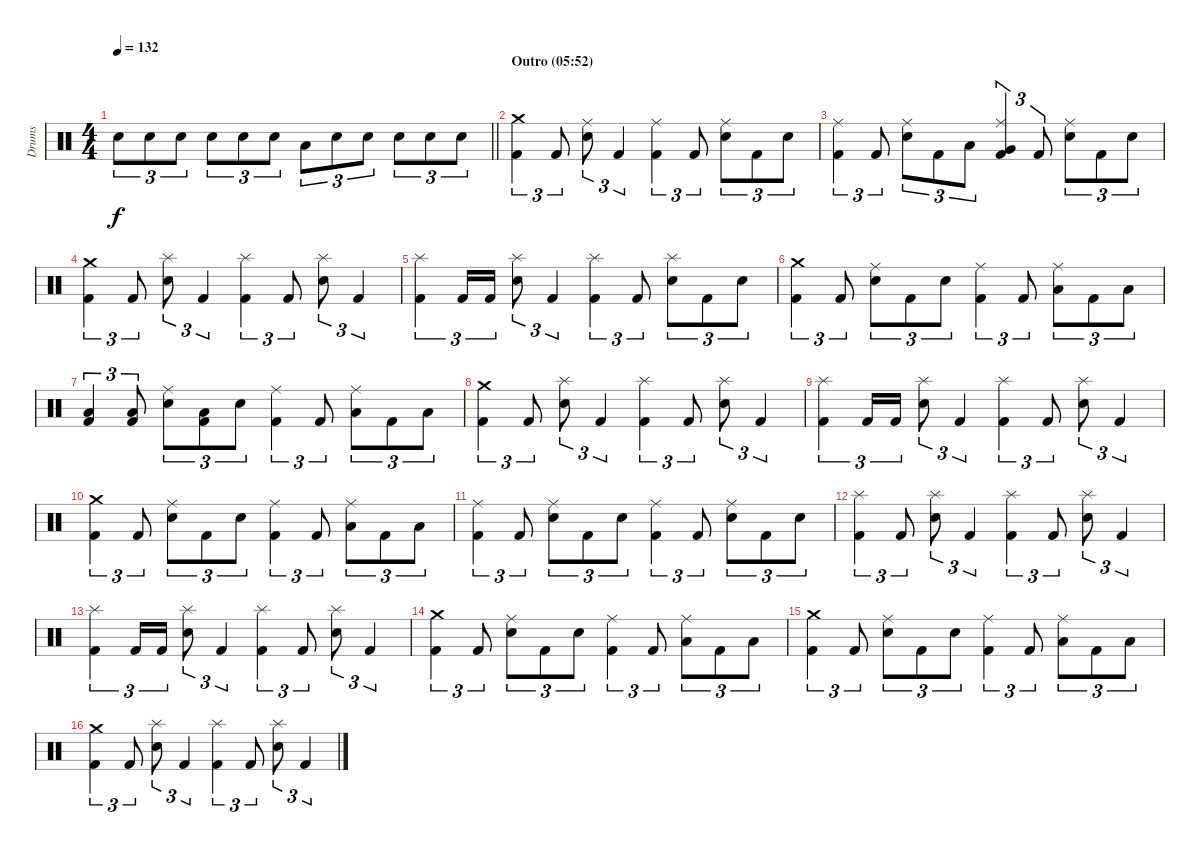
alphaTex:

\track ("Drums" "Drums") {instrument percussion}
\staff {score}
\articulation defaults
\ts (4 4)
\tempo 132
\clef neutral
\barLineRight lightlight
\ks c "Electric Snare (hit)".8{tu (3 2) dy f} "Electric Snare (hit)".8{tu (3 2)} "Electric Snare (hit)".8{tu (3 2)} "Electric Snare (hit)".8{tu (3 2)} "Electric Snare (hit)".8{tu (3 2)} "Electric Snare (hit)".8{tu (3 2)} "Low Tom (hit)".8{tu (3 2)} "Electric Snare (hit)".8{tu (3 2)} "Electric Snare (hit)".8{tu (3 2)} "Electric Snare (hit)".8{tu (3 2)} "Electric Snare (hit)".8{tu (3 2)} "Electric Snare (hit)".8{tu (3 2)}
|
\section ("" "Outro (05:52)")
("Crash medium (hit)" "Kick (hit) 2").4{tu (3 2)} "Kick (hit) 2".8{tu (3 2)} ("Ride (middle)" "Electric Snare (hit)").8{tu (3 2)} "Kick (hit) 2".4{tu (3 2)} ("Ride (middle)" "Kick (hit) 2").4{tu (3 2)} "Kick (hit) 2".8{tu (3 2)} ("Ride (middle)" "Electric Snare (hit)").8{tu (3 2)} "Kick (hit) 2".8{tu (3 2)} "Electric Snare (hit)".8{tu (3 2)} |
("Ride (middle)" "Kick (hit) 2").4{tu (3 2)} "Kick (hit) 2".8{tu (3 2)} ("Ride (middle)" "Electric Snare (hit)").8{tu (3 2)} "Kick (hit) 2".8{tu (3 2)} "Low Tom (hit)".8{tu (3 2)} ("Ride (middle)" "Very Low Tom (hit)" "Kick (hit) 2").4{tu (3 2)} "Kick (hit) 2".8{tu (3 2)} ("Ride (middle)" "Electric Snare (hit)").8{tu (3 2)} "Kick (hit) 2".8{tu (3 2)} "Electric Snare (hit)".8{tu (3 2)} |
("Crash medium (hit)" "Kick (hit) 2").4{tu (3 2)} "Kick (hit) 2".8{tu (3 2)} ("Splash (hit)" "Electric Snare (hit)").8{tu (3 2)} "Kick (hit) 2".4{tu (3 2)} ("Splash (hit)" "Kick (hit) 2").4{tu (3 2)} "Kick (hit) 2".8{tu (3 2)} ("Splash (hit)" "Electric Snare (hit)").8{tu (3 2)} "Kick (hit) 2".4{tu (3 2)} |
("Splash (hit)" "Kick (hit) 2").4{tu (3 2)} "Kick (hit) 2".16{tu (3 2)} "Kick (hit) 2".16{tu (3 2)} ("Splash (hit)" "Electric Snare (hit)").8{tu (3 2)} "Kick (hit) 2".4{tu (3 2)} ("Splash (hit)" "Kick (hit) 2").4{tu (3 2)} "Kick (hit) 2".8{tu (3 2)} ("Splash (hit)" "Electric Snare (hit)").8{tu (3 2)} "Kick (hit) 2".8{tu (3 2)} "Electric Snare (hit)".8{tu (3 2)} |
("Crash medium (hit)" "Kick (hit) 2").4{tu (3 2)} "Kick (hit) 2".8{tu (3 2)} ("Ride (middle)" "Electric Snare (hit)").8{tu (3 2)} "Kick (hit) 2".8{tu (3 2)} "Electric Snare (hit)".8{tu (3 2)} ("Ride (middle)" "Kick (hit) 2").4{tu (3 2)} "Kick (hit) 2".8{tu (3 2)} ("Ride (middle)" "Low Tom (hit)").8{tu (3 2)} "Kick (hit) 2".8{tu (3 2)} "Low Tom (hit)".8{tu (3 2)} |
("Low Tom (hit)" "Kick (hit) 2").4{tu (3 2)} ("Low Tom (hit)" "Kick (hit) 2").8{tu (3 2)} ("Ride (middle)" "Electric Snare (hit)").8{tu (3 2)} ("Low Tom (hit)" "Kick (hit) 2").8{tu (3 2)} "Electric Snare (hit)".8{tu (3 2)} ("Ride (middle)" "Kick (hit) 2").4{tu (3 2)} "Kick (hit) 2".8{tu (3 2)} ("Ride (middle)" "Low Tom (hit)").8{tu (3 2)} "Kick (hit) 2".8{tu (3 2)} "Low Tom (hit)".8{tu (3 2)} |
("Crash medium (hit)" "Kick (hit) 2").4{tu (3 2)} "Kick (hit) 2".8{tu (3 2)} ("Splash (hit)" "Electric Snare (hit)").8{tu (3 2)} "Kick (hit) 2".4{tu (3 2)} ("Splash (hit)" "Kick (hit) 2").4{tu (3 2)} "Kick (hit) 2".8{tu (3 2)} ("Splash (hit)" "Electric Snare (hit)").8{tu (3 2)} "Kick (hit) 2".4{tu (3 2)} |
("Splash (hit)" "Kick (hit) 2").4{tu (3 2)} "Kick (hit) 2".16{tu (3 2)} "Kick (hit) 2".16{tu (3 2)} ("Splash (hit)" "Electric Snare (hit)").8{tu (3 2)} "Kick (hit) 2".4{tu (3 2)} ("Splash (hit)" "Kick (hit) 2").4{tu (3 2)} "Kick (hit) 2".8{tu (3 2)} ("Splash (hit)" "Electric Snare (hit)").8{tu (3 2)} "Kick (hit) 2".4{tu (3 2)} |
("Crash medium (hit)" "Kick (hit) 2").4{tu (3 2)} "Kick (hit) 2".8{tu (3 2)} ("Ride (middle)" "Electric Snare (hit)").8{tu (3 2)} "Kick (hit) 2".8{tu (3 2)} "Electric Snare (hit)".8{tu (3 2)} ("Ride (middle)" "Kick (hit) 2").4{tu (3 2)} "Kick (hit) 2".8{tu (3 2)} ("Ride (middle)" "Low Tom (hit)").8{tu (3 2)} "Kick (hit) 2".8{tu (3 2)} "Low Tom (hit)".8{tu (3 2)} |
("Ride (middle)" "Kick (hit) 2").4{tu (3 2)} "Kick (hit) 2".8{tu (3 2)} ("Ride (middle)" "Electric Snare (hit)").8{tu (3 2)} "Kick (hit) 2".8{tu (3 2)} "Electric Snare (hit)".8{tu (3 2)} ("Ride (middle)" "Kick (hit) 2").4{tu (3 2)} "Kick (hit) 2".8{tu (3 2)} ("Ride (middle)" "Electric Snare (hit)").8{tu (3 2)} "Kick (hit) 2".8{tu (3 2)} "Electric Snare (hit)".8{tu (3 2)} |
("Splash (hit)" "Kick (hit) 2").4{tu (3 2)} "Kick (hit) 2".8{tu (3 2)} ("Splash (hit)" "Electric Snare (hit)").8{tu (3 2)} "Kick (hit) 2".4{tu (3 2)} ("Splash (hit)" "Kick (hit) 2").4{tu (3 2)} "Kick (hit) 2".8{tu (3 2)} ("Splash (hit)" "Electric Snare (hit)").8{tu (3 2)} "Kick (hit) 2".4{tu (3 2)} |
("Splash (hit)" "Kick (hit) 2").4{tu (3 2)} "Kick (hit) 2".16{tu (3 2)} "Kick (hit) 2".16{tu (3 2)} ("Splash (hit)" "Electric Snare (hit)").8{tu (3 2)} "Kick (hit) 2".4{tu (3 2)} ("Splash (hit)" "Kick (hit) 2").4{tu (3 2)} "Kick (hit) 2".8{tu (3 2)} ("Splash (hit)" "Electric Snare (hit)").8{tu (3 2)} "Kick (hit) 2".4{tu (3 2)} |
("Crash medium (hit)" "Kick (hit) 2").4{tu (3 2)} "Kick (hit) 2".8{tu (3 2)} ("Ride (middle)" "Electric Snare (hit)").8{tu (3 2)} "Kick (hit) 2".8{tu (3 2)} "Electric Snare (hit)".8{tu (3 2)} ("Ride (middle)" "Kick (hit) 2").4{tu (3 2)} "Kick (hit) 2".8{tu (3 2)} ("Ride (middle)" "Low Tom (hit)").8{tu (3 2)} "Kick (hit) 2".8{tu (3 2)} "Low Tom (hit)".8{tu (3 2)} |
("Crash medium (hit)" "Kick (hit) 2").4{tu (3 2)} "Kick (hit) 2".8{tu (3 2)} ("Ride (middle)" "Electric Snare (hit)").8{tu (3 2)} "Kick (hit) 2".8{tu (3 2)} "Electric Snare (hit)".8{tu (3 2)} ("Ride (middle)" "Kick (hit) 2").4{tu (3 2)} "Kick (hit) 2".8{tu (3 2)} ("Ride (middle)" "Low Tom (hit)").8{tu (3 2)} "Kick (hit) 2".8{tu (3 2)} "Low Tom (hit)".8{tu (3 2)} |
("Crash medium (hit)" "Kick (hit) 2").4{tu (3 2)} "Kick (hit) 2".8{tu (3 2)} ("Splash (hit)" "Electric Snare (hit)").8{tu (3 2)} "Kick (hit) 2".4{tu (3 2)} ("Splash (hit)" "Kick (hit) 2").4{tu (3 2)} "Kick (hit) 2".8{tu (3 2)} ("Splash (hit)" "Electric Snare (hit)").8{tu (3 2)} "Kick (hit) 2".4{tu (3 2)}
